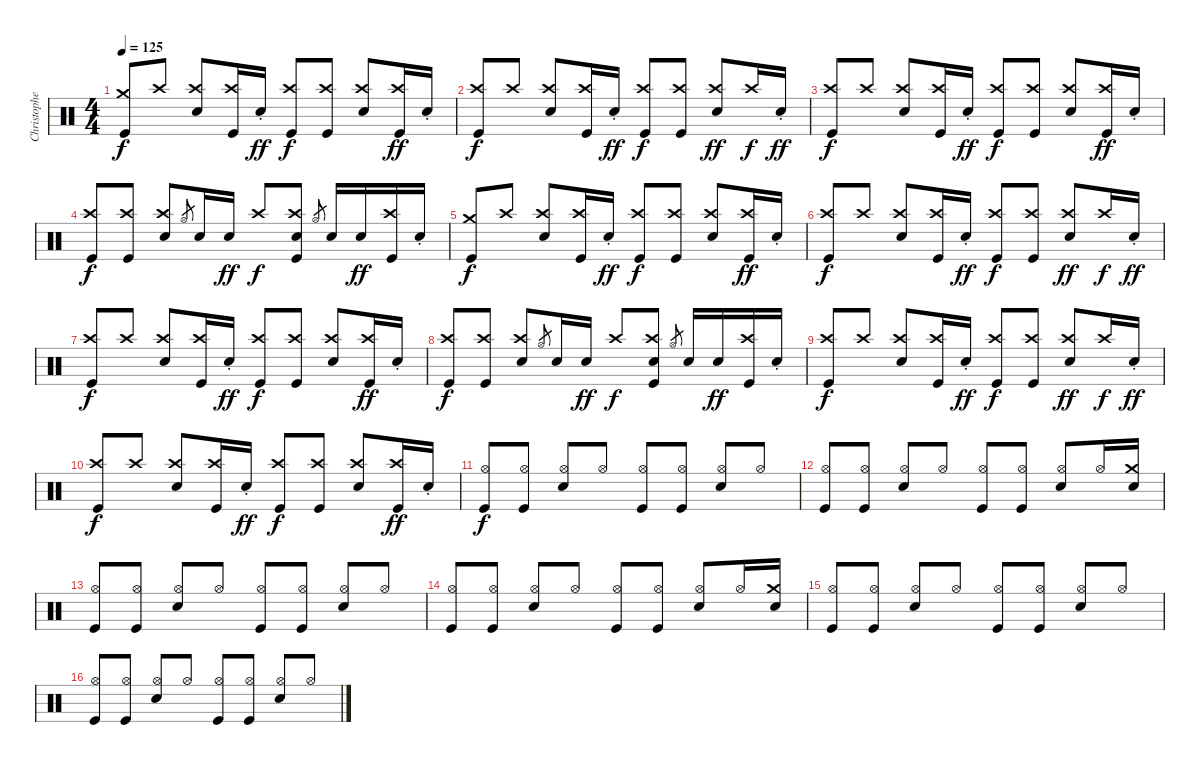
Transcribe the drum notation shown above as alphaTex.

\track ("Christopher - Drums" "Christophe") {instrument percussion}
\staff {score}
\articulation defaults
\ts (4 4)
\tempo 125
\clef neutral
\ks c
("Crash medium (hit)" "Kick (hit)").8{dy f beam Up} "Crash high (hit)".8{beam Up} ("Crash high (hit)" "Electric Snare (hit)").8{beam Up} ("Crash high (hit)" "Kick (hit)").16{beam Up} "Electric Snare (hit)"{st}.16{dy ff beam Up} ("Crash high (hit)" "Kick (hit)").8{dy f beam Up} ("Crash high (hit)" "Kick (hit)").8{beam Up} ("Crash high (hit)" "Electric Snare (hit)").8{beam Up} ("Crash high (hit)" "Kick (hit)").16{dy ff beam Up} "Electric Snare (hit)"{st}.16{beam Up} |
("Crash high (hit)" "Kick (hit)").8{dy f beam Up} "Crash high (hit)".8{beam Up} ("Crash high (hit)" "Electric Snare (hit)").8{beam Up} ("Crash high (hit)" "Kick (hit)").16{beam Up} "Electric Snare (hit)"{st}.16{dy ff beam Up} ("Crash high (hit)" "Kick (hit)").8{dy f beam Up} ("Crash high (hit)" "Kick (hit)").8{beam Up} ("Crash high (hit)" "Electric Snare (hit)").8{dy ff beam Up} "Crash high (hit)".16{dy f beam Up} "Electric Snare (hit)"{st}.16{dy ff beam Up} |
("Crash high (hit)" "Kick (hit)").8{dy f beam Up} "Crash high (hit)".8{beam Up} ("Crash high (hit)" "Electric Snare (hit)").8{beam Up} ("Crash high (hit)" "Kick (hit)").16{beam Up} "Electric Snare (hit)"{st}.16{dy ff beam Up} ("Crash high (hit)" "Kick (hit)").8{dy f beam Up} ("Crash high (hit)" "Kick (hit)").8{beam Up} ("Crash high (hit)" "Electric Snare (hit)").8{beam Up} ("Crash high (hit)" "Kick (hit)").16{dy ff beam Up} "Electric Snare (hit)"{st}.16{beam Up} |
("Crash high (hit)" "Kick (hit)").8{dy f beam Up} ("Crash high (hit)" "Kick (hit)").8{beam Up} ("Crash high (hit)" "Electric Snare (hit)").8{beam Up} "Hi-Hat (open)".8{gr} "Electric Snare (hit)".16{beam Up} "Electric Snare (hit)".16{dy ff beam Up} "Crash high (hit)".8{dy f beam Up} ("Crash high (hit)" "Electric Snare (hit)" "Kick (hit)").8{beam Up} "Hi-Hat (open)".8{gr} "Electric Snare (hit)".16{beam Up} "Electric Snare (hit)".16{dy ff beam Up} ("Crash high (hit)" "Kick (hit)").16{beam Up} "Electric Snare (hit)"{st}.16{beam Up} |
("Crash medium (hit)" "Kick (hit)").8{dy f beam Up} "Crash high (hit)".8{beam Up} ("Crash high (hit)" "Electric Snare (hit)").8{beam Up} ("Crash high (hit)" "Kick (hit)").16{beam Up} "Electric Snare (hit)"{st}.16{dy ff beam Up} ("Crash high (hit)" "Kick (hit)").8{dy f beam Up} ("Crash high (hit)" "Kick (hit)").8{beam Up} ("Crash high (hit)" "Electric Snare (hit)").8{beam Up} ("Crash high (hit)" "Kick (hit)").16{dy ff beam Up} "Electric Snare (hit)"{st}.16{beam Up} |
("Crash high (hit)" "Kick (hit)").8{dy f beam Up} "Crash high (hit)".8{beam Up} ("Crash high (hit)" "Electric Snare (hit)").8{beam Up} ("Crash high (hit)" "Kick (hit)").16{beam Up} "Electric Snare (hit)"{st}.16{dy ff beam Up} ("Crash high (hit)" "Kick (hit)").8{dy f beam Up} ("Crash high (hit)" "Kick (hit)").8{beam Up} ("Crash high (hit)" "Electric Snare (hit)").8{dy ff beam Up} "Crash high (hit)".16{dy f beam Up} "Electric Snare (hit)"{st}.16{dy ff beam Up} |
("Crash high (hit)" "Kick (hit)").8{dy f beam Up} "Crash high (hit)".8{beam Up} ("Crash high (hit)" "Electric Snare (hit)").8{beam Up} ("Crash high (hit)" "Kick (hit)").16{beam Up} "Electric Snare (hit)"{st}.16{dy ff beam Up} ("Crash high (hit)" "Kick (hit)").8{dy f beam Up} ("Crash high (hit)" "Kick (hit)").8{beam Up} ("Crash high (hit)" "Electric Snare (hit)").8{beam Up} ("Crash high (hit)" "Kick (hit)").16{dy ff beam Up} "Electric Snare (hit)"{st}.16{beam Up} |
("Crash high (hit)" "Kick (hit)").8{dy f beam Up} ("Crash high (hit)" "Kick (hit)").8{beam Up} ("Crash high (hit)" "Electric Snare (hit)").8{beam Up} "Hi-Hat (open)".8{gr} "Electric Snare (hit)".16{beam Up} "Electric Snare (hit)".16{dy ff beam Up} "Crash high (hit)".8{dy f beam Up} ("Crash high (hit)" "Electric Snare (hit)" "Kick (hit)").8{beam Up} "Hi-Hat (open)".8{gr} "Electric Snare (hit)".16{beam Up} "Electric Snare (hit)".16{dy ff beam Up} ("Crash high (hit)" "Kick (hit)").16{beam Up} "Electric Snare (hit)"{st}.16{beam Up} |
("Crash high (hit)" "Kick (hit)").8{dy f beam Up} "Crash high (hit)".8{beam Up} ("Crash high (hit)" "Electric Snare (hit)").8{beam Up} ("Crash high (hit)" "Kick (hit)").16{beam Up} "Electric Snare (hit)"{st}.16{dy ff beam Up} ("Crash high (hit)" "Kick (hit)").8{dy f beam Up} ("Crash high (hit)" "Kick (hit)").8{beam Up} ("Crash high (hit)" "Electric Snare (hit)").8{dy ff beam Up} "Crash high (hit)".16{dy f beam Up} "Electric Snare (hit)"{st}.16{dy ff beam Up} |
("Crash high (hit)" "Kick (hit)").8{dy f beam Up} "Crash high (hit)".8{beam Up} ("Crash high (hit)" "Electric Snare (hit)").8{beam Up} ("Crash high (hit)" "Kick (hit)").16{beam Up} "Electric Snare (hit)"{st}.16{dy ff beam Up} ("Crash high (hit)" "Kick (hit)").8{dy f beam Up} ("Crash high (hit)" "Kick (hit)").8{beam Up} ("Crash high (hit)" "Electric Snare (hit)").8{beam Up} ("Crash high (hit)" "Kick (hit)").16{dy ff beam Up} "Electric Snare (hit)"{st}.16{beam Up} |
("Hi-Hat (open)" "Kick (hit)").8{dy f beam Up} ("Hi-Hat (open)" "Kick (hit)").8{beam Up} ("Hi-Hat (open)" "Electric Snare (hit)").8{beam Up} "Hi-Hat (open)".8{beam Up} ("Hi-Hat (open)" "Kick (hit)").8{beam Up} ("Hi-Hat (open)" "Kick (hit)").8{beam Up} ("Hi-Hat (open)" "Electric Snare (hit)").8{beam Up} "Hi-Hat (open)".8{beam Up} |
("Hi-Hat (open)" "Kick (hit)").8{beam Up} ("Hi-Hat (open)" "Kick (hit)").8{beam Up} ("Hi-Hat (open)" "Electric Snare (hit)").8{beam Up} "Hi-Hat (open)".8{beam Up} ("Hi-Hat (open)" "Kick (hit)").8{beam Up} ("Hi-Hat (open)" "Kick (hit)").8{beam Up} ("Hi-Hat (open)" "Electric Snare (hit)").8{beam Up} "Hi-Hat (open)".16{beam Up} ("Crash medium (hit)" "Electric Snare (hit)").16{beam Up} |
("Hi-Hat (open)" "Kick (hit)").8{beam Up} ("Hi-Hat (open)" "Kick (hit)").8{beam Up} ("Hi-Hat (open)" "Electric Snare (hit)").8{beam Up} "Hi-Hat (open)".8{beam Up} ("Hi-Hat (open)" "Kick (hit)").8{beam Up} ("Hi-Hat (open)" "Kick (hit)").8{beam Up} ("Hi-Hat (open)" "Electric Snare (hit)").8{beam Up} "Hi-Hat (open)".8{beam Up} |
("Hi-Hat (open)" "Kick (hit)").8{beam Up} ("Hi-Hat (open)" "Kick (hit)").8{beam Up} ("Hi-Hat (open)" "Electric Snare (hit)").8{beam Up} "Hi-Hat (open)".8{beam Up} ("Hi-Hat (open)" "Kick (hit)").8{beam Up} ("Hi-Hat (open)" "Kick (hit)").8{beam Up} ("Hi-Hat (open)" "Electric Snare (hit)").8{beam Up} "Hi-Hat (open)".16{beam Up} ("Crash medium (hit)" "Electric Snare (hit)").16{beam Up} |
("Hi-Hat (open)" "Kick (hit)").8{beam Up} ("Hi-Hat (open)" "Kick (hit)").8{beam Up} ("Hi-Hat (open)" "Electric Snare (hit)").8{beam Up} "Hi-Hat (open)".8{beam Up} ("Hi-Hat (open)" "Kick (hit)").8{beam Up} ("Hi-Hat (open)" "Kick (hit)").8{beam Up} ("Hi-Hat (open)" "Electric Snare (hit)").8{beam Up} "Hi-Hat (open)".8{beam Up} |
("Hi-Hat (open)" "Kick (hit)").8{beam Up} ("Hi-Hat (open)" "Kick (hit)").8{beam Up} ("Hi-Hat (open)" "Electric Snare (hit)").8{beam Up} "Hi-Hat (open)".8{beam Up} ("Hi-Hat (open)" "Kick (hit)").8{beam Up} ("Hi-Hat (open)" "Kick (hit)").8{beam Up} ("Hi-Hat (open)" "Electric Snare (hit)").8{beam Up} "Hi-Hat (open)".8{beam Up}
